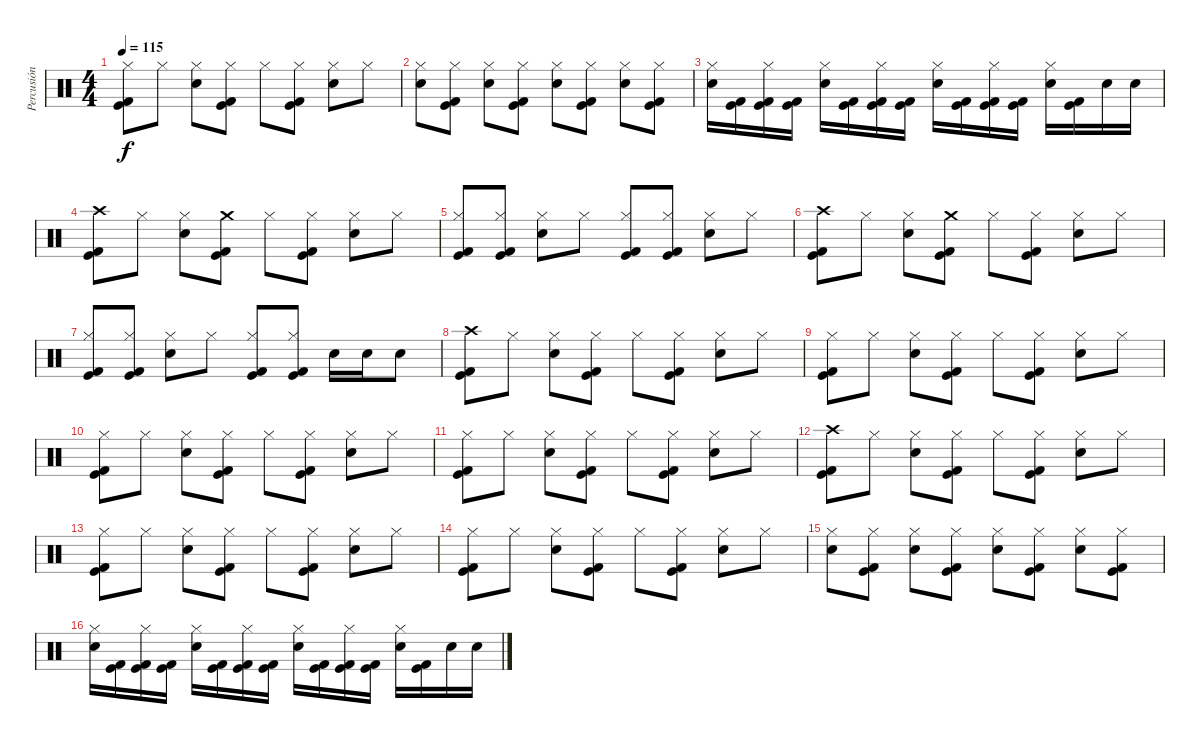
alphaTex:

\track ("Percusión" "Percusión") {instrument percussion}
\staff {score}
\articulation defaults
\ts (4 4)
\tempo 115
\clef neutral
\ks c
("Kick (hit) 2" "Hi-Hat (closed)" "Kick (hit)").8{dy f} "Hi-Hat (closed)".8 ("Snare (hit) 2" "Hi-Hat (closed)").8 ("Kick (hit) 2" "Hi-Hat (closed)" "Kick (hit)").8 "Hi-Hat (closed)".8 ("Kick (hit) 2" "Hi-Hat (closed)" "Kick (hit)").8 ("Snare (hit) 2" "Hi-Hat (closed)").8 "Hi-Hat (closed)".8 |
("Snare (hit) 2" "Hi-Hat (closed)").8 ("Kick (hit) 2" "Hi-Hat (closed)" "Kick (hit)").8 ("Snare (hit) 2" "Hi-Hat (closed)").8 ("Kick (hit) 2" "Hi-Hat (closed)" "Kick (hit)").8 ("Snare (hit) 2" "Hi-Hat (closed)").8 ("Kick (hit) 2" "Hi-Hat (closed)" "Kick (hit)").8 ("Snare (hit) 2" "Hi-Hat (closed)").8 ("Kick (hit) 2" "Hi-Hat (closed)" "Kick (hit)").8 |
("Snare (hit) 2" "Hi-Hat (closed)").16 ("Kick (hit) 2" "Kick (hit)").16 ("Kick (hit) 2" "Hi-Hat (closed)" "Kick (hit)").16 ("Kick (hit) 2" "Kick (hit)").16 ("Snare (hit) 2" "Hi-Hat (closed)").16 ("Kick (hit) 2" "Kick (hit)").16 ("Kick (hit) 2" "Hi-Hat (closed)" "Kick (hit)").16 ("Kick (hit) 2" "Kick (hit)").16 ("Snare (hit) 2" "Hi-Hat (closed)").16 ("Kick (hit) 2" "Kick (hit)").16 ("Kick (hit) 2" "Hi-Hat (closed)" "Kick (hit)").16 ("Kick (hit) 2" "Kick (hit)").16 ("Snare (hit) 2" "Hi-Hat (closed)").16 ("Kick (hit) 2" "Kick (hit)").16 "Snare (hit) 2".16 "Snare (hit) 2".16 |
("Kick (hit) 2" "Crash high (hit)" "Kick (hit)").8 "Hi-Hat (closed)".8 ("Snare (hit) 2" "Hi-Hat (closed)").8 ("Kick (hit) 2" "Crash medium (hit)" "Kick (hit)").8 "Hi-Hat (closed)".8 ("Kick (hit) 2" "Hi-Hat (closed)" "Kick (hit)").8 ("Snare (hit) 2" "Hi-Hat (closed)").8 "Hi-Hat (closed)".8 |
("Kick (hit) 2" "Hi-Hat (closed)" "Kick (hit)").8 ("Kick (hit) 2" "Hi-Hat (closed)" "Kick (hit)").8 ("Snare (hit) 2" "Hi-Hat (closed)").8 "Hi-Hat (closed)".8 ("Kick (hit) 2" "Hi-Hat (closed)" "Kick (hit)").8 ("Kick (hit) 2" "Hi-Hat (closed)" "Kick (hit)").8 ("Snare (hit) 2" "Hi-Hat (closed)").8 "Hi-Hat (closed)".8 |
("Kick (hit) 2" "Crash high (hit)" "Kick (hit)").8 "Hi-Hat (closed)".8 ("Snare (hit) 2" "Hi-Hat (closed)").8 ("Kick (hit) 2" "Crash medium (hit)" "Kick (hit)").8 "Hi-Hat (closed)".8 ("Kick (hit) 2" "Hi-Hat (closed)" "Kick (hit)").8 ("Snare (hit) 2" "Hi-Hat (closed)").8 "Hi-Hat (closed)".8 |
("Kick (hit) 2" "Hi-Hat (closed)" "Kick (hit)").8 ("Kick (hit) 2" "Hi-Hat (closed)" "Kick (hit)").8 ("Snare (hit) 2" "Hi-Hat (closed)").8 "Hi-Hat (closed)".8 ("Kick (hit) 2" "Hi-Hat (closed)" "Kick (hit)").8 ("Kick (hit) 2" "Hi-Hat (closed)" "Kick (hit)").8 "Snare (hit) 2".16 "Snare (hit) 2".16 "Snare (hit) 2".8 |
("Kick (hit) 2" "Crash high (hit)" "Kick (hit)").8 "Hi-Hat (closed)".8 ("Snare (hit) 2" "Hi-Hat (closed)").8 ("Kick (hit) 2" "Hi-Hat (closed)" "Kick (hit)").8 "Hi-Hat (closed)".8 ("Kick (hit) 2" "Hi-Hat (closed)" "Kick (hit)").8 ("Snare (hit) 2" "Hi-Hat (closed)").8 "Hi-Hat (closed)".8 |
("Kick (hit) 2" "Hi-Hat (closed)" "Kick (hit)").8 "Hi-Hat (closed)".8 ("Snare (hit) 2" "Hi-Hat (closed)").8 ("Kick (hit) 2" "Hi-Hat (closed)" "Kick (hit)").8 "Hi-Hat (closed)".8 ("Kick (hit) 2" "Hi-Hat (closed)" "Kick (hit)").8 ("Snare (hit) 2" "Hi-Hat (closed)").8 "Hi-Hat (closed)".8 |
("Kick (hit) 2" "Hi-Hat (closed)" "Kick (hit)").8 "Hi-Hat (closed)".8 ("Snare (hit) 2" "Hi-Hat (closed)").8 ("Kick (hit) 2" "Hi-Hat (closed)" "Kick (hit)").8 "Hi-Hat (closed)".8 ("Kick (hit) 2" "Hi-Hat (closed)" "Kick (hit)").8 ("Snare (hit) 2" "Hi-Hat (closed)").8 "Hi-Hat (closed)".8 |
("Kick (hit) 2" "Hi-Hat (closed)" "Kick (hit)").8 "Hi-Hat (closed)".8 ("Snare (hit) 2" "Hi-Hat (closed)").8 ("Kick (hit) 2" "Hi-Hat (closed)" "Kick (hit)").8 "Hi-Hat (closed)".8 ("Kick (hit) 2" "Hi-Hat (closed)" "Kick (hit)").8 ("Snare (hit) 2" "Hi-Hat (closed)").8 "Hi-Hat (closed)".8 |
("Kick (hit) 2" "Crash high (hit)" "Kick (hit)").8 "Hi-Hat (closed)".8 ("Snare (hit) 2" "Hi-Hat (closed)").8 ("Kick (hit) 2" "Hi-Hat (closed)" "Kick (hit)").8 "Hi-Hat (closed)".8 ("Kick (hit) 2" "Hi-Hat (closed)" "Kick (hit)").8 ("Snare (hit) 2" "Hi-Hat (closed)").8 "Hi-Hat (closed)".8 |
("Kick (hit) 2" "Hi-Hat (closed)" "Kick (hit)").8 "Hi-Hat (closed)".8 ("Snare (hit) 2" "Hi-Hat (closed)").8 ("Kick (hit) 2" "Hi-Hat (closed)" "Kick (hit)").8 "Hi-Hat (closed)".8 ("Kick (hit) 2" "Hi-Hat (closed)" "Kick (hit)").8 ("Snare (hit) 2" "Hi-Hat (closed)").8 "Hi-Hat (closed)".8 |
("Kick (hit) 2" "Hi-Hat (closed)" "Kick (hit)").8 "Hi-Hat (closed)".8 ("Snare (hit) 2" "Hi-Hat (closed)").8 ("Kick (hit) 2" "Hi-Hat (closed)" "Kick (hit)").8 "Hi-Hat (closed)".8 ("Kick (hit) 2" "Hi-Hat (closed)" "Kick (hit)").8 ("Snare (hit) 2" "Hi-Hat (closed)").8 "Hi-Hat (closed)".8 |
("Snare (hit) 2" "Hi-Hat (closed)").8 ("Kick (hit) 2" "Hi-Hat (closed)" "Kick (hit)").8 ("Snare (hit) 2" "Hi-Hat (closed)").8 ("Kick (hit) 2" "Hi-Hat (closed)" "Kick (hit)").8 ("Snare (hit) 2" "Hi-Hat (closed)").8 ("Kick (hit) 2" "Hi-Hat (closed)" "Kick (hit)").8 ("Snare (hit) 2" "Hi-Hat (closed)").8 ("Kick (hit) 2" "Hi-Hat (closed)" "Kick (hit)").8 |
("Snare (hit) 2" "Hi-Hat (closed)").16 ("Kick (hit) 2" "Kick (hit)").16 ("Kick (hit) 2" "Hi-Hat (closed)" "Kick (hit)").16 ("Kick (hit) 2" "Kick (hit)").16 ("Snare (hit) 2" "Hi-Hat (closed)").16 ("Kick (hit) 2" "Kick (hit)").16 ("Kick (hit) 2" "Hi-Hat (closed)" "Kick (hit)").16 ("Kick (hit) 2" "Kick (hit)").16 ("Snare (hit) 2" "Hi-Hat (closed)").16 ("Kick (hit) 2" "Kick (hit)").16 ("Kick (hit) 2" "Hi-Hat (closed)" "Kick (hit)").16 ("Kick (hit) 2" "Kick (hit)").16 ("Snare (hit) 2" "Hi-Hat (closed)").16 ("Kick (hit) 2" "Kick (hit)").16 "Snare (hit) 2".16 "Snare (hit) 2".16
